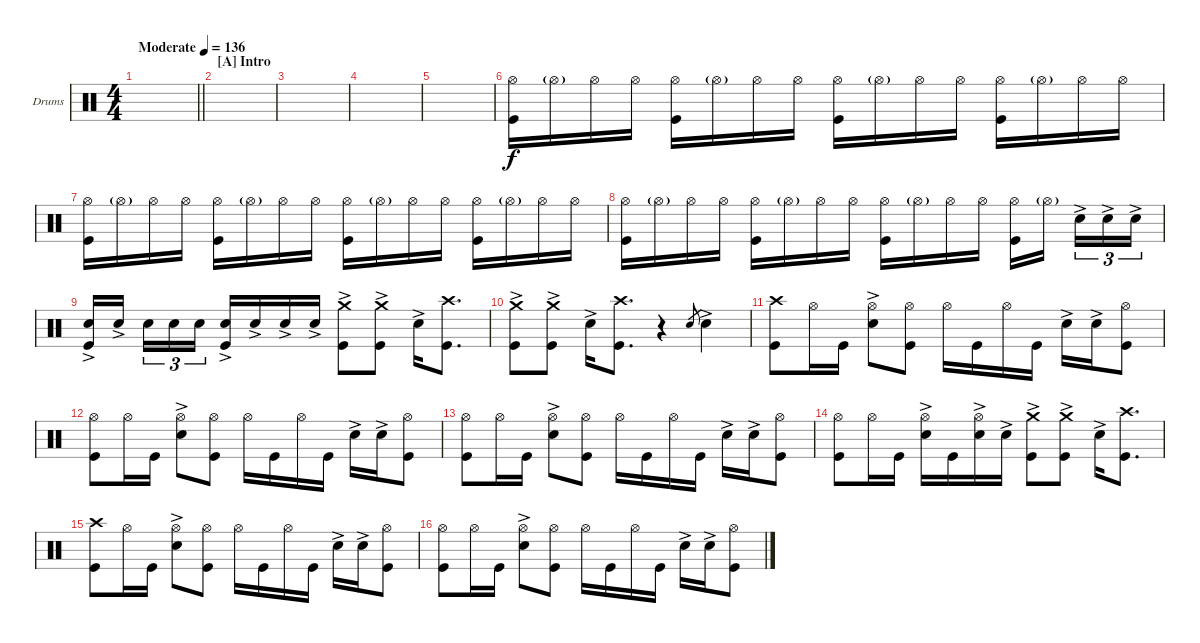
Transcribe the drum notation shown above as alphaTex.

\bracketExtendMode groupsimilarinstruments
\firstSystemTrackNameOrientation horizontal
\otherSystemsTrackNameOrientation horizontal
\track ("Drumkit" "Drums") {instrument percussion}
\staff {score}
\articulation defaults
\ts (4 4)
\beaming (8 2 2 2 2)
\tempo (136 "Moderate")
\clef neutral
\barLineRight lightlight
\ks c
|
\section ("A" "Intro")
|
|
|
|
("Hi-Hat (open)" "Kick (hit)").16 "Hi-Hat (open)"{g}.16 "Hi-Hat (open)".16 "Hi-Hat (open)".16 ("Hi-Hat (open)" "Kick (hit)").16 "Hi-Hat (open)"{g}.16 "Hi-Hat (open)".16 "Hi-Hat (open)".16 ("Hi-Hat (open)" "Kick (hit)").16 "Hi-Hat (open)"{g}.16 "Hi-Hat (open)".16 "Hi-Hat (open)".16 ("Hi-Hat (open)" "Kick (hit)").16 "Hi-Hat (open)"{g}.16 "Hi-Hat (open)".16 "Hi-Hat (open)".16 |
("Hi-Hat (open)" "Kick (hit)").16 "Hi-Hat (open)"{g}.16 "Hi-Hat (open)".16 "Hi-Hat (open)".16 ("Hi-Hat (open)" "Kick (hit)").16 "Hi-Hat (open)"{g}.16 "Hi-Hat (open)".16 "Hi-Hat (open)".16 ("Hi-Hat (open)" "Kick (hit)").16 "Hi-Hat (open)"{g}.16 "Hi-Hat (open)".16 "Hi-Hat (open)".16 ("Hi-Hat (open)" "Kick (hit)").16 "Hi-Hat (open)"{g}.16 "Hi-Hat (open)".16 "Hi-Hat (open)".16 |
("Hi-Hat (open)" "Kick (hit)").16 "Hi-Hat (open)"{g}.16 "Hi-Hat (open)".16 "Hi-Hat (open)".16 ("Hi-Hat (open)" "Kick (hit)").16 "Hi-Hat (open)"{g}.16 "Hi-Hat (open)".16 "Hi-Hat (open)".16 ("Hi-Hat (open)" "Kick (hit)").16 "Hi-Hat (open)"{g}.16 "Hi-Hat (open)".16 "Hi-Hat (open)".16 ("Hi-Hat (open)" "Kick (hit)").16 "Hi-Hat (open)"{g}.16 "Snare (hit) 2"{ac}.16{tu (3 2)} "Snare (hit) 2"{ac}.16{tu (3 2)} "Snare (hit) 2"{ac}.16{tu (3 2)} |
("Snare (hit) 2"{ac} "Kick (hit)").16 "Snare (hit) 2"{ac}.16 "Snare (hit) 2".16{tu (3 2)} "Snare (hit) 2".16{tu (3 2)} "Snare (hit) 2".16{tu (3 2)} ("Snare (hit) 2"{ac} "Kick (hit)").16 "Snare (hit) 2"{ac}.16 "Snare (hit) 2"{ac}.16 "Snare (hit) 2"{ac}.16 ("Crash medium (hit)"{ac} "Kick (hit)").8 ("Crash medium (hit)"{ac} "Kick (hit)").8 "Snare (hit) 2"{ac}.16 ("Crash high (hit)" "Kick (hit)").8{d} |
("Crash medium (hit)"{ac} "Kick (hit)").8 ("Crash medium (hit)"{ac} "Kick (hit)").8 "Snare (hit) 2"{ac}.16 ("Crash high (hit)" "Kick (hit)").8{d} r.4 "Snare (hit) 2".8{gr} "Snare (hit) 2"{ac}.4 |
("Crash high (hit)" "Kick (hit)").8 "Hi-Hat (open)".16 "Kick (hit)".16 ("Hi-Hat (open)" "Snare (hit) 2"{ac}).8 ("Hi-Hat (open)" "Kick (hit)").8 "Hi-Hat (open)".16 "Kick (hit)".16 "Hi-Hat (open)".16 "Kick (hit)".16 "Snare (hit) 2"{ac}.16 "Snare (hit) 2"{ac}.16 ("Hi-Hat (open)" "Kick (hit)").8 |
("Hi-Hat (open)" "Kick (hit)").8 "Hi-Hat (open)".16 "Kick (hit)".16 ("Hi-Hat (open)" "Snare (hit) 2"{ac}).8 ("Hi-Hat (open)" "Kick (hit)").8 "Hi-Hat (open)".16 "Kick (hit)".16 "Hi-Hat (open)".16 "Kick (hit)".16 "Snare (hit) 2"{ac}.16 "Snare (hit) 2"{ac}.16 ("Hi-Hat (open)" "Kick (hit)").8 |
("Hi-Hat (open)" "Kick (hit)").8 "Hi-Hat (open)".16 "Kick (hit)".16 ("Hi-Hat (open)" "Snare (hit) 2"{ac}).8 ("Hi-Hat (open)" "Kick (hit)").8 "Hi-Hat (open)".16 "Kick (hit)".16 "Hi-Hat (open)".16 "Kick (hit)".16 "Snare (hit) 2"{ac}.16 "Snare (hit) 2"{ac}.16 ("Hi-Hat (open)" "Kick (hit)").8 |
("Hi-Hat (open)" "Kick (hit)").8 "Hi-Hat (open)".16 "Kick (hit)".16 ("Hi-Hat (open)" "Snare (hit) 2"{ac}).16 "Kick (hit)".16 ("Hi-Hat (open)" "Snare (hit) 2"{ac}).16 "Snare (hit) 2"{ac}.16 ("Crash medium (hit)"{ac} "Kick (hit)").8 ("Crash medium (hit)"{ac} "Kick (hit)").8 "Snare (hit) 2"{ac}.16 ("Crash high (hit)" "Kick (hit)").8{d} |
("Crash high (hit)" "Kick (hit)").8 "Hi-Hat (open)".16 "Kick (hit)".16 ("Hi-Hat (open)" "Snare (hit) 2"{ac}).8 ("Hi-Hat (open)" "Kick (hit)").8 "Hi-Hat (open)".16 "Kick (hit)".16 "Hi-Hat (open)".16 "Kick (hit)".16 "Snare (hit) 2"{ac}.16 "Snare (hit) 2"{ac}.16 ("Hi-Hat (open)" "Kick (hit)").8 |
("Hi-Hat (open)" "Kick (hit)").8 "Hi-Hat (open)".16 "Kick (hit)".16 ("Hi-Hat (open)" "Snare (hit) 2"{ac}).8 ("Hi-Hat (open)" "Kick (hit)").8 "Hi-Hat (open)".16 "Kick (hit)".16 "Hi-Hat (open)".16 "Kick (hit)".16 "Snare (hit) 2"{ac}.16 "Snare (hit) 2"{ac}.16 ("Hi-Hat (open)" "Kick (hit)").8
